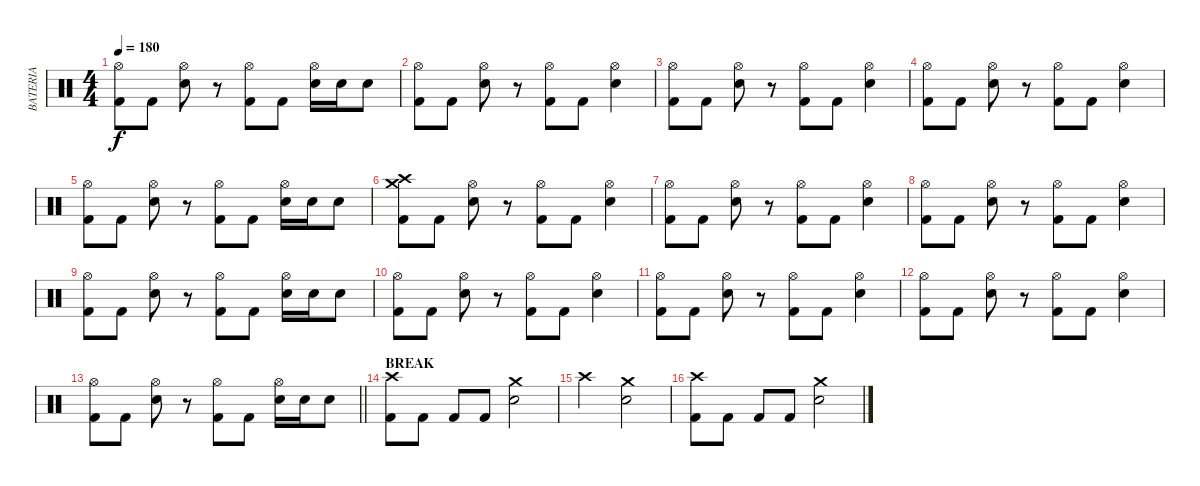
\track ("BATERIA" "BATERIA") {instrument percussion}
\staff {score}
\articulation defaults
\ts (4 4)
\tempo 180
\clef neutral
\ks c
("Hi-Hat (open)" "Kick (hit) 2").8{dy f} "Kick (hit) 2".8 ("Hi-Hat (open)" "Electric Snare (hit)").8 r.8 ("Hi-Hat (open)" "Kick (hit) 2").8 "Kick (hit) 2".8 ("Hi-Hat (open)" "Electric Snare (hit)").16 "Electric Snare (hit)".16 "Electric Snare (hit)".8 |
("Hi-Hat (open)" "Kick (hit) 2").8 "Kick (hit) 2".8 ("Hi-Hat (open)" "Electric Snare (hit)").8 r.8 ("Hi-Hat (open)" "Kick (hit) 2").8 "Kick (hit) 2".8 ("Hi-Hat (open)" "Electric Snare (hit)").4 |
("Hi-Hat (open)" "Kick (hit) 2").8 "Kick (hit) 2".8 ("Hi-Hat (open)" "Electric Snare (hit)").8 r.8 ("Hi-Hat (open)" "Kick (hit) 2").8 "Kick (hit) 2".8 ("Hi-Hat (open)" "Electric Snare (hit)").4 |
("Hi-Hat (open)" "Kick (hit) 2").8 "Kick (hit) 2".8 ("Hi-Hat (open)" "Electric Snare (hit)").8 r.8 ("Hi-Hat (open)" "Kick (hit) 2").8 "Kick (hit) 2".8 ("Hi-Hat (open)" "Electric Snare (hit)").4 |
("Hi-Hat (open)" "Kick (hit) 2").8 "Kick (hit) 2".8 ("Hi-Hat (open)" "Electric Snare (hit)").8 r.8 ("Hi-Hat (open)" "Kick (hit) 2").8 "Kick (hit) 2".8 ("Hi-Hat (open)" "Electric Snare (hit)").16 "Electric Snare (hit)".16 "Electric Snare (hit)".8 |
("Crash high (hit)" "Crash medium (hit)" "Kick (hit) 2").8 "Kick (hit) 2".8 ("Hi-Hat (open)" "Electric Snare (hit)").8 r.8 ("Hi-Hat (open)" "Kick (hit) 2").8 "Kick (hit) 2".8 ("Hi-Hat (open)" "Electric Snare (hit)").4 |
("Hi-Hat (open)" "Kick (hit) 2").8 "Kick (hit) 2".8 ("Hi-Hat (open)" "Electric Snare (hit)").8 r.8 ("Hi-Hat (open)" "Kick (hit) 2").8 "Kick (hit) 2".8 ("Hi-Hat (open)" "Electric Snare (hit)").4 |
("Hi-Hat (open)" "Kick (hit) 2").8 "Kick (hit) 2".8 ("Hi-Hat (open)" "Electric Snare (hit)").8 r.8 ("Hi-Hat (open)" "Kick (hit) 2").8 "Kick (hit) 2".8 ("Hi-Hat (open)" "Electric Snare (hit)").4 |
("Hi-Hat (open)" "Kick (hit) 2").8 "Kick (hit) 2".8 ("Hi-Hat (open)" "Electric Snare (hit)").8 r.8 ("Hi-Hat (open)" "Kick (hit) 2").8 "Kick (hit) 2".8 ("Hi-Hat (open)" "Electric Snare (hit)").16 "Electric Snare (hit)".16 "Electric Snare (hit)".8 |
("Hi-Hat (open)" "Kick (hit) 2").8 "Kick (hit) 2".8 ("Hi-Hat (open)" "Electric Snare (hit)").8 r.8 ("Hi-Hat (open)" "Kick (hit) 2").8 "Kick (hit) 2".8 ("Hi-Hat (open)" "Electric Snare (hit)").4 |
("Hi-Hat (open)" "Kick (hit) 2").8 "Kick (hit) 2".8 ("Hi-Hat (open)" "Electric Snare (hit)").8 r.8 ("Hi-Hat (open)" "Kick (hit) 2").8 "Kick (hit) 2".8 ("Hi-Hat (open)" "Electric Snare (hit)").4 |
("Hi-Hat (open)" "Kick (hit) 2").8 "Kick (hit) 2".8 ("Hi-Hat (open)" "Electric Snare (hit)").8 r.8 ("Hi-Hat (open)" "Kick (hit) 2").8 "Kick (hit) 2".8 ("Hi-Hat (open)" "Electric Snare (hit)").4 |
\barLineRight lightlight
("Hi-Hat (open)" "Kick (hit) 2").8 "Kick (hit) 2".8 ("Hi-Hat (open)" "Electric Snare (hit)").8 r.8 ("Hi-Hat (open)" "Kick (hit) 2").8 "Kick (hit) 2".8 ("Hi-Hat (open)" "Electric Snare (hit)").16 "Electric Snare (hit)".16 "Electric Snare (hit)".8 |
\section ("" "BREAK")
("Crash high (hit)" "Kick (hit) 2").8 "Kick (hit) 2".8 "Kick (hit) 2".8 "Kick (hit) 2".8 ("Crash medium (hit)" "Electric Snare (hit)").2 |
"Crash high (hit)".2 ("Crash medium (hit)" "Electric Snare (hit)").2 |
("Crash high (hit)" "Kick (hit) 2").8 "Kick (hit) 2".8 "Kick (hit) 2".8 "Kick (hit) 2".8 ("Crash medium (hit)" "Electric Snare (hit)").2
